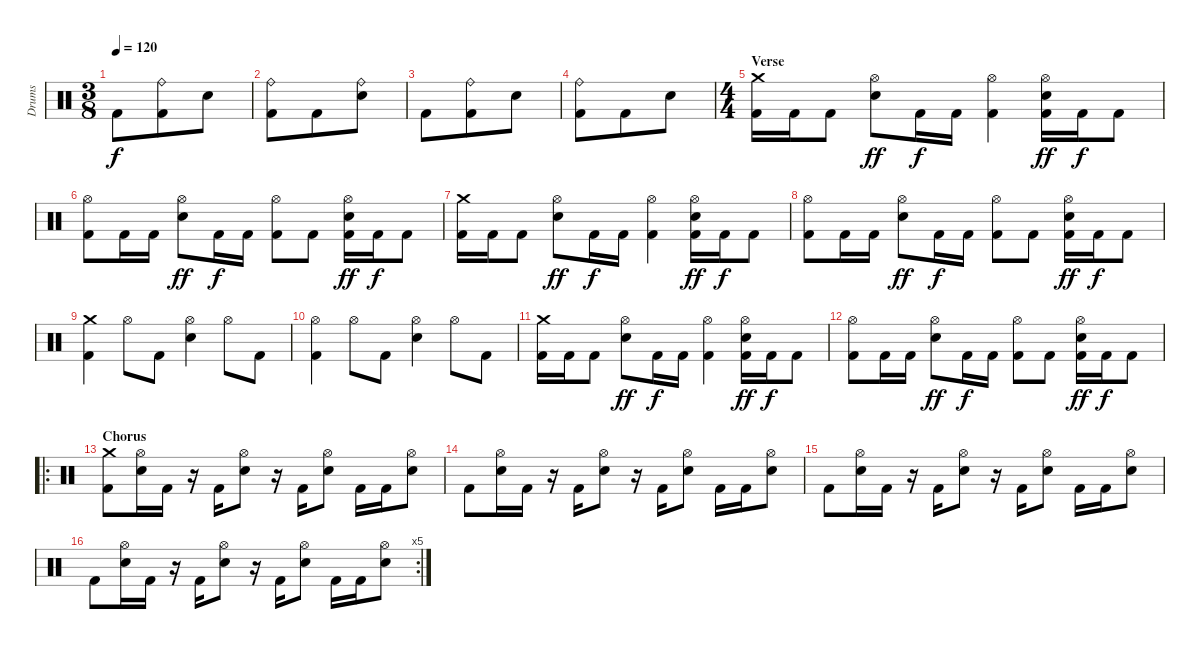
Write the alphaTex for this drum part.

\track ("Drums" "Drums") {instrument percussion}
\staff {score}
\articulation defaults
\ts (3 8)
\tempo 120
\clef neutral
\ks c "Kick (hit) 2".8{dy f}
("Ride (bell)" "Kick (hit) 2").8 "Snare (hit) 2".8 |
("Ride (bell)" "Kick (hit) 2").8 "Kick (hit) 2".8 ("Ride (bell)" "Snare (hit) 2").8 |
"Kick (hit) 2".8 ("Ride (bell)" "Kick (hit) 2").8 "Snare (hit) 2".8 |
("Ride (bell)" "Kick (hit) 2").8 "Kick (hit) 2".8 "Snare (hit) 2".8 |
\ts (4 4)
\section ("" "Verse")
("Crash medium (hit)" "Kick (hit) 2").16 "Kick (hit) 2".16 "Kick (hit) 2".8 ("Hi-Hat (open)" "Snare (hit) 2").8{dy ff} "Kick (hit) 2".16{dy f} "Kick (hit) 2".16 ("Hi-Hat (open)" "Kick (hit) 2").4 ("Hi-Hat (open)" "Snare (hit) 2" "Kick (hit) 2").16{dy ff} "Kick (hit) 2".16{dy f} "Kick (hit) 2".8 |
("Hi-Hat (open)" "Kick (hit) 2").8 "Kick (hit) 2".16 "Kick (hit) 2".16 ("Hi-Hat (open)" "Snare (hit) 2").8{dy ff} "Kick (hit) 2".16{dy f} "Kick (hit) 2".16 ("Hi-Hat (open)" "Kick (hit) 2").8 "Kick (hit) 2".8 ("Hi-Hat (open)" "Snare (hit) 2" "Kick (hit) 2").16{dy ff} "Kick (hit) 2".16{dy f} "Kick (hit) 2".8 |
("Crash medium (hit)" "Kick (hit) 2").16 "Kick (hit) 2".16 "Kick (hit) 2".8 ("Hi-Hat (open)" "Snare (hit) 2").8{dy ff} "Kick (hit) 2".16{dy f} "Kick (hit) 2".16 ("Hi-Hat (open)" "Kick (hit) 2").4 ("Hi-Hat (open)" "Snare (hit) 2" "Kick (hit) 2").16{dy ff} "Kick (hit) 2".16{dy f} "Kick (hit) 2".8 |
("Hi-Hat (open)" "Kick (hit) 2").8 "Kick (hit) 2".16 "Kick (hit) 2".16 ("Hi-Hat (open)" "Snare (hit) 2").8{dy ff} "Kick (hit) 2".16{dy f} "Kick (hit) 2".16 ("Hi-Hat (open)" "Kick (hit) 2").8 "Kick (hit) 2".8 ("Hi-Hat (open)" "Snare (hit) 2" "Kick (hit) 2").16{dy ff} "Kick (hit) 2".16{dy f} "Kick (hit) 2".8 |
("Crash medium (hit)" "Kick (hit) 2").4 "Hi-Hat (open)".8 "Kick (hit) 2".8 ("Hi-Hat (open)" "Snare (hit) 2").4 "Hi-Hat (open)".8 "Kick (hit) 2".8 |
("Hi-Hat (open)" "Kick (hit) 2").4 "Hi-Hat (open)".8 "Kick (hit) 2".8 ("Hi-Hat (open)" "Snare (hit) 2").4 "Hi-Hat (open)".8 "Kick (hit) 2".8 |
("Crash medium (hit)" "Kick (hit) 2").16 "Kick (hit) 2".16 "Kick (hit) 2".8 ("Hi-Hat (open)" "Snare (hit) 2").8{dy ff} "Kick (hit) 2".16{dy f} "Kick (hit) 2".16 ("Hi-Hat (open)" "Kick (hit) 2").4 ("Hi-Hat (open)" "Snare (hit) 2" "Kick (hit) 2").16{dy ff} "Kick (hit) 2".16{dy f} "Kick (hit) 2".8 |
("Hi-Hat (open)" "Kick (hit) 2").8 "Kick (hit) 2".16 "Kick (hit) 2".16 ("Hi-Hat (open)" "Snare (hit) 2").8{dy ff} "Kick (hit) 2".16{dy f} "Kick (hit) 2".16 ("Hi-Hat (open)" "Kick (hit) 2").8 "Kick (hit) 2".8 ("Hi-Hat (open)" "Snare (hit) 2" "Kick (hit) 2").16{dy ff} "Kick (hit) 2".16{dy f} "Kick (hit) 2".8 |
\ro
\section ("" "Chorus")
("Crash medium (hit)" "Kick (hit) 2").8 ("Hi-Hat (open)" "Snare (hit) 2").16 "Kick (hit) 2".16 r.16 "Kick (hit) 2".16 ("Hi-Hat (open)" "Snare (hit) 2").8 r.16 "Kick (hit) 2".16 ("Hi-Hat (open)" "Snare (hit) 2").8 "Kick (hit) 2".16 "Kick (hit) 2".16 ("Hi-Hat (open)" "Snare (hit) 2").8 |
"Kick (hit) 2".8 ("Hi-Hat (open)" "Snare (hit) 2").16 "Kick (hit) 2".16 r.16 "Kick (hit) 2".16 ("Hi-Hat (open)" "Snare (hit) 2").8 r.16 "Kick (hit) 2".16 ("Hi-Hat (open)" "Snare (hit) 2").8 "Kick (hit) 2".16 "Kick (hit) 2".16 ("Hi-Hat (open)" "Snare (hit) 2").8 |
"Kick (hit) 2".8 ("Hi-Hat (open)" "Snare (hit) 2").16 "Kick (hit) 2".16 r.16 "Kick (hit) 2".16 ("Hi-Hat (open)" "Snare (hit) 2").8 r.16 "Kick (hit) 2".16 ("Hi-Hat (open)" "Snare (hit) 2").8 "Kick (hit) 2".16 "Kick (hit) 2".16 ("Hi-Hat (open)" "Snare (hit) 2").8 |
\rc 5 "Kick (hit) 2".8
("Hi-Hat (open)" "Snare (hit) 2").16 "Kick (hit) 2".16 r.16 "Kick (hit) 2".16 ("Hi-Hat (open)" "Snare (hit) 2").8 r.16 "Kick (hit) 2".16 ("Hi-Hat (open)" "Snare (hit) 2").8 "Kick (hit) 2".16 "Kick (hit) 2".16 ("Hi-Hat (open)" "Snare (hit) 2").8
